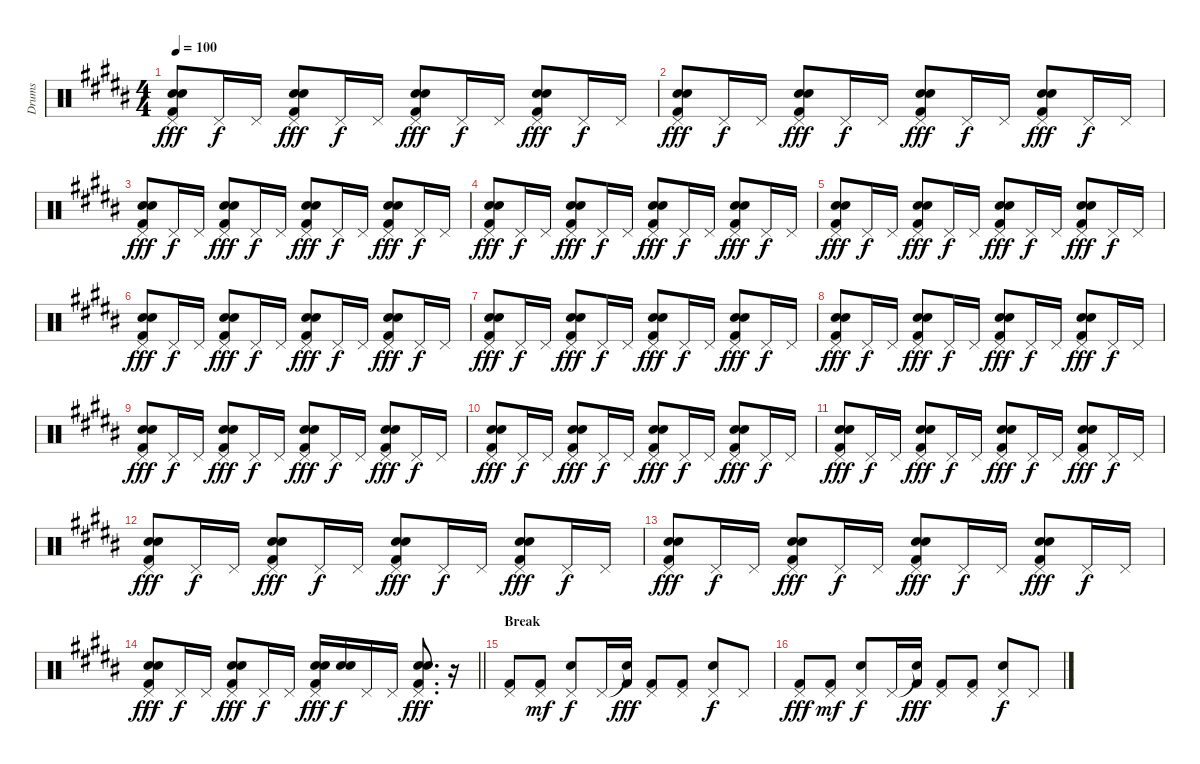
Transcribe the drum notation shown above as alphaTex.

\track ("Drums" "Drums") {instrument percussion}
\staff {score}
\articulation defaults
\ts (4 4)
\tempo 100
\clef neutral
\ks b
("Pedal Hi-Hat (hit)" "Snare (hit) 2" "Electric Snare (hit)" "Kick (hit) 2").8{dy fff} "Pedal Hi-Hat (hit)".16{dy f} "Pedal Hi-Hat (hit)".16 ("Pedal Hi-Hat (hit)" "Snare (hit) 2" "Electric Snare (hit)" "Kick (hit) 2").8{dy fff} "Pedal Hi-Hat (hit)".16{dy f} "Pedal Hi-Hat (hit)".16 ("Pedal Hi-Hat (hit)" "Snare (hit) 2" "Electric Snare (hit)" "Kick (hit) 2").8{dy fff} "Pedal Hi-Hat (hit)".16{dy f} "Pedal Hi-Hat (hit)".16 ("Pedal Hi-Hat (hit)" "Snare (hit) 2" "Electric Snare (hit)" "Kick (hit) 2").8{dy fff} "Pedal Hi-Hat (hit)".16{dy f} "Pedal Hi-Hat (hit)".16 |
("Pedal Hi-Hat (hit)" "Snare (hit) 2" "Electric Snare (hit)" "Kick (hit) 2").8{dy fff} "Pedal Hi-Hat (hit)".16{dy f} "Pedal Hi-Hat (hit)".16 ("Pedal Hi-Hat (hit)" "Snare (hit) 2" "Electric Snare (hit)" "Kick (hit) 2").8{dy fff} "Pedal Hi-Hat (hit)".16{dy f} "Pedal Hi-Hat (hit)".16 ("Pedal Hi-Hat (hit)" "Snare (hit) 2" "Electric Snare (hit)" "Kick (hit) 2").8{dy fff} "Pedal Hi-Hat (hit)".16{dy f} "Pedal Hi-Hat (hit)".16 ("Pedal Hi-Hat (hit)" "Snare (hit) 2" "Electric Snare (hit)" "Kick (hit) 2").8{dy fff} "Pedal Hi-Hat (hit)".16{dy f} "Pedal Hi-Hat (hit)".16 |
("Pedal Hi-Hat (hit)" "Snare (hit) 2" "Electric Snare (hit)" "Kick (hit) 2").8{dy fff} "Pedal Hi-Hat (hit)".16{dy f} "Pedal Hi-Hat (hit)".16 ("Pedal Hi-Hat (hit)" "Snare (hit) 2" "Electric Snare (hit)" "Kick (hit) 2").8{dy fff} "Pedal Hi-Hat (hit)".16{dy f} "Pedal Hi-Hat (hit)".16 ("Pedal Hi-Hat (hit)" "Snare (hit) 2" "Electric Snare (hit)" "Kick (hit) 2").8{dy fff} "Pedal Hi-Hat (hit)".16{dy f} "Pedal Hi-Hat (hit)".16 ("Pedal Hi-Hat (hit)" "Snare (hit) 2" "Electric Snare (hit)" "Kick (hit) 2").8{dy fff} "Pedal Hi-Hat (hit)".16{dy f} "Pedal Hi-Hat (hit)".16 |
("Pedal Hi-Hat (hit)" "Snare (hit) 2" "Electric Snare (hit)" "Kick (hit) 2").8{dy fff} "Pedal Hi-Hat (hit)".16{dy f} "Pedal Hi-Hat (hit)".16 ("Pedal Hi-Hat (hit)" "Snare (hit) 2" "Electric Snare (hit)" "Kick (hit) 2").8{dy fff} "Pedal Hi-Hat (hit)".16{dy f} "Pedal Hi-Hat (hit)".16 ("Pedal Hi-Hat (hit)" "Snare (hit) 2" "Electric Snare (hit)" "Kick (hit) 2").8{dy fff} "Pedal Hi-Hat (hit)".16{dy f} "Pedal Hi-Hat (hit)".16 ("Pedal Hi-Hat (hit)" "Snare (hit) 2" "Electric Snare (hit)" "Kick (hit) 2").8{dy fff} "Pedal Hi-Hat (hit)".16{dy f} "Pedal Hi-Hat (hit)".16 |
("Pedal Hi-Hat (hit)" "Snare (hit) 2" "Electric Snare (hit)" "Kick (hit) 2").8{dy fff} "Pedal Hi-Hat (hit)".16{dy f} "Pedal Hi-Hat (hit)".16 ("Pedal Hi-Hat (hit)" "Snare (hit) 2" "Electric Snare (hit)" "Kick (hit) 2").8{dy fff} "Pedal Hi-Hat (hit)".16{dy f} "Pedal Hi-Hat (hit)".16 ("Pedal Hi-Hat (hit)" "Snare (hit) 2" "Electric Snare (hit)" "Kick (hit) 2").8{dy fff} "Pedal Hi-Hat (hit)".16{dy f} "Pedal Hi-Hat (hit)".16 ("Pedal Hi-Hat (hit)" "Snare (hit) 2" "Electric Snare (hit)" "Kick (hit) 2").8{dy fff} "Pedal Hi-Hat (hit)".16{dy f} "Pedal Hi-Hat (hit)".16 |
("Pedal Hi-Hat (hit)" "Snare (hit) 2" "Electric Snare (hit)" "Kick (hit) 2").8{dy fff} "Pedal Hi-Hat (hit)".16{dy f} "Pedal Hi-Hat (hit)".16 ("Pedal Hi-Hat (hit)" "Snare (hit) 2" "Electric Snare (hit)" "Kick (hit) 2").8{dy fff} "Pedal Hi-Hat (hit)".16{dy f} "Pedal Hi-Hat (hit)".16 ("Pedal Hi-Hat (hit)" "Snare (hit) 2" "Electric Snare (hit)" "Kick (hit) 2").8{dy fff} "Pedal Hi-Hat (hit)".16{dy f} "Pedal Hi-Hat (hit)".16 ("Pedal Hi-Hat (hit)" "Snare (hit) 2" "Electric Snare (hit)" "Kick (hit) 2").8{dy fff} "Pedal Hi-Hat (hit)".16{dy f} "Pedal Hi-Hat (hit)".16 |
("Pedal Hi-Hat (hit)" "Snare (hit) 2" "Electric Snare (hit)" "Kick (hit) 2").8{dy fff} "Pedal Hi-Hat (hit)".16{dy f} "Pedal Hi-Hat (hit)".16 ("Pedal Hi-Hat (hit)" "Snare (hit) 2" "Electric Snare (hit)" "Kick (hit) 2").8{dy fff} "Pedal Hi-Hat (hit)".16{dy f} "Pedal Hi-Hat (hit)".16 ("Pedal Hi-Hat (hit)" "Snare (hit) 2" "Electric Snare (hit)" "Kick (hit) 2").8{dy fff} "Pedal Hi-Hat (hit)".16{dy f} "Pedal Hi-Hat (hit)".16 ("Pedal Hi-Hat (hit)" "Snare (hit) 2" "Electric Snare (hit)" "Kick (hit) 2").8{dy fff} "Pedal Hi-Hat (hit)".16{dy f} "Pedal Hi-Hat (hit)".16 |
("Pedal Hi-Hat (hit)" "Snare (hit) 2" "Electric Snare (hit)" "Kick (hit) 2").8{dy fff} "Pedal Hi-Hat (hit)".16{dy f} "Pedal Hi-Hat (hit)".16 ("Pedal Hi-Hat (hit)" "Snare (hit) 2" "Electric Snare (hit)" "Kick (hit) 2").8{dy fff} "Pedal Hi-Hat (hit)".16{dy f} "Pedal Hi-Hat (hit)".16 ("Pedal Hi-Hat (hit)" "Snare (hit) 2" "Electric Snare (hit)" "Kick (hit) 2").8{dy fff} "Pedal Hi-Hat (hit)".16{dy f} "Pedal Hi-Hat (hit)".16 ("Pedal Hi-Hat (hit)" "Snare (hit) 2" "Electric Snare (hit)" "Kick (hit) 2").8{dy fff} "Pedal Hi-Hat (hit)".16{dy f} "Pedal Hi-Hat (hit)".16 |
("Pedal Hi-Hat (hit)" "Snare (hit) 2" "Electric Snare (hit)" "Kick (hit) 2").8{dy fff} "Pedal Hi-Hat (hit)".16{dy f} "Pedal Hi-Hat (hit)".16 ("Pedal Hi-Hat (hit)" "Snare (hit) 2" "Electric Snare (hit)" "Kick (hit) 2").8{dy fff} "Pedal Hi-Hat (hit)".16{dy f} "Pedal Hi-Hat (hit)".16 ("Pedal Hi-Hat (hit)" "Snare (hit) 2" "Electric Snare (hit)" "Kick (hit) 2").8{dy fff} "Pedal Hi-Hat (hit)".16{dy f} "Pedal Hi-Hat (hit)".16 ("Pedal Hi-Hat (hit)" "Snare (hit) 2" "Electric Snare (hit)" "Kick (hit) 2").8{dy fff} "Pedal Hi-Hat (hit)".16{dy f} "Pedal Hi-Hat (hit)".16 |
("Pedal Hi-Hat (hit)" "Snare (hit) 2" "Electric Snare (hit)" "Kick (hit) 2").8{dy fff} "Pedal Hi-Hat (hit)".16{dy f} "Pedal Hi-Hat (hit)".16 ("Pedal Hi-Hat (hit)" "Snare (hit) 2" "Electric Snare (hit)" "Kick (hit) 2").8{dy fff} "Pedal Hi-Hat (hit)".16{dy f} "Pedal Hi-Hat (hit)".16 ("Pedal Hi-Hat (hit)" "Snare (hit) 2" "Electric Snare (hit)" "Kick (hit) 2").8{dy fff} "Pedal Hi-Hat (hit)".16{dy f} "Pedal Hi-Hat (hit)".16 ("Pedal Hi-Hat (hit)" "Snare (hit) 2" "Electric Snare (hit)" "Kick (hit) 2").8{dy fff} "Pedal Hi-Hat (hit)".16{dy f} "Pedal Hi-Hat (hit)".16 |
("Pedal Hi-Hat (hit)" "Snare (hit) 2" "Electric Snare (hit)" "Kick (hit) 2").8{dy fff} "Pedal Hi-Hat (hit)".16{dy f} "Pedal Hi-Hat (hit)".16 ("Pedal Hi-Hat (hit)" "Snare (hit) 2" "Electric Snare (hit)" "Kick (hit) 2").8{dy fff} "Pedal Hi-Hat (hit)".16{dy f} "Pedal Hi-Hat (hit)".16 ("Pedal Hi-Hat (hit)" "Snare (hit) 2" "Electric Snare (hit)" "Kick (hit) 2").8{dy fff} "Pedal Hi-Hat (hit)".16{dy f} "Pedal Hi-Hat (hit)".16 ("Pedal Hi-Hat (hit)" "Snare (hit) 2" "Electric Snare (hit)" "Kick (hit) 2").8{dy fff} "Pedal Hi-Hat (hit)".16{dy f} "Pedal Hi-Hat (hit)".16 |
("Pedal Hi-Hat (hit)" "Snare (hit) 2" "Electric Snare (hit)" "Kick (hit) 2").8{dy fff} "Pedal Hi-Hat (hit)".16{dy f} "Pedal Hi-Hat (hit)".16 ("Pedal Hi-Hat (hit)" "Snare (hit) 2" "Electric Snare (hit)" "Kick (hit) 2").8{dy fff} "Pedal Hi-Hat (hit)".16{dy f} "Pedal Hi-Hat (hit)".16 ("Pedal Hi-Hat (hit)" "Snare (hit) 2" "Electric Snare (hit)" "Kick (hit) 2").8{dy fff} "Pedal Hi-Hat (hit)".16{dy f} "Pedal Hi-Hat (hit)".16 ("Pedal Hi-Hat (hit)" "Snare (hit) 2" "Electric Snare (hit)" "Kick (hit) 2").8{dy fff} "Pedal Hi-Hat (hit)".16{dy f} "Pedal Hi-Hat (hit)".16 |
("Pedal Hi-Hat (hit)" "Snare (hit) 2" "Electric Snare (hit)" "Kick (hit) 2").8{dy fff} "Pedal Hi-Hat (hit)".16{dy f} "Pedal Hi-Hat (hit)".16 ("Pedal Hi-Hat (hit)" "Snare (hit) 2" "Electric Snare (hit)" "Kick (hit) 2").8{dy fff} "Pedal Hi-Hat (hit)".16{dy f} "Pedal Hi-Hat (hit)".16 ("Pedal Hi-Hat (hit)" "Snare (hit) 2" "Electric Snare (hit)" "Kick (hit) 2").8{dy fff} "Pedal Hi-Hat (hit)".16{dy f} "Pedal Hi-Hat (hit)".16 ("Pedal Hi-Hat (hit)" "Snare (hit) 2" "Electric Snare (hit)" "Kick (hit) 2").8{dy fff} "Pedal Hi-Hat (hit)".16{dy f} "Pedal Hi-Hat (hit)".16 |
\barLineRight lightlight
("Pedal Hi-Hat (hit)" "Snare (hit) 2" "Electric Snare (hit)" "Kick (hit) 2").8{dy fff} "Pedal Hi-Hat (hit)".16{dy f} "Pedal Hi-Hat (hit)".16 ("Pedal Hi-Hat (hit)" "Snare (hit) 2" "Electric Snare (hit)" "Kick (hit) 2").8{dy fff} "Pedal Hi-Hat (hit)".16{dy f} "Pedal Hi-Hat (hit)".16 ("Pedal Hi-Hat (hit)" "Snare (hit) 2" "Electric Snare (hit)" "Kick (hit) 2").16{dy fff} ("Snare (hit) 2" "Electric Snare (hit)").16{dy f} "Pedal Hi-Hat (hit)".16 "Pedal Hi-Hat (hit)".16 ("Pedal Hi-Hat (hit)" "Snare (hit) 2" "Electric Snare (hit)" "Kick (hit) 2").8{d dy fff} r.16 |
\section ("" "Break")
("Pedal Hi-Hat (hit)" "Kick (hit) 2").8 ("Pedal Hi-Hat (hit)" "Kick (hit) 2").8{dy mf} ("Pedal Hi-Hat (hit)" "Snare (hit) 2").8{dy f} "Pedal Hi-Hat (hit)".16 ("Snare (hit)"{t} "Kick (hit) 2").16{dy fff} ("Pedal Hi-Hat (hit)" "Kick (hit) 2").8 ("Pedal Hi-Hat (hit)" "Kick (hit) 2").8 ("Pedal Hi-Hat (hit)" "Snare (hit) 2").8{dy f} "Pedal Hi-Hat (hit)".8 |
("Pedal Hi-Hat (hit)" "Kick (hit) 2").8{dy fff} ("Pedal Hi-Hat (hit)" "Kick (hit) 2").8{dy mf} ("Pedal Hi-Hat (hit)" "Snare (hit) 2").8{dy f} "Pedal Hi-Hat (hit)".16 ("Snare (hit)"{t} "Kick (hit) 2").16{dy fff} ("Pedal Hi-Hat (hit)" "Kick (hit) 2").8 ("Pedal Hi-Hat (hit)" "Kick (hit) 2").8 ("Pedal Hi-Hat (hit)" "Snare (hit) 2").8{dy f} "Pedal Hi-Hat (hit)".8
